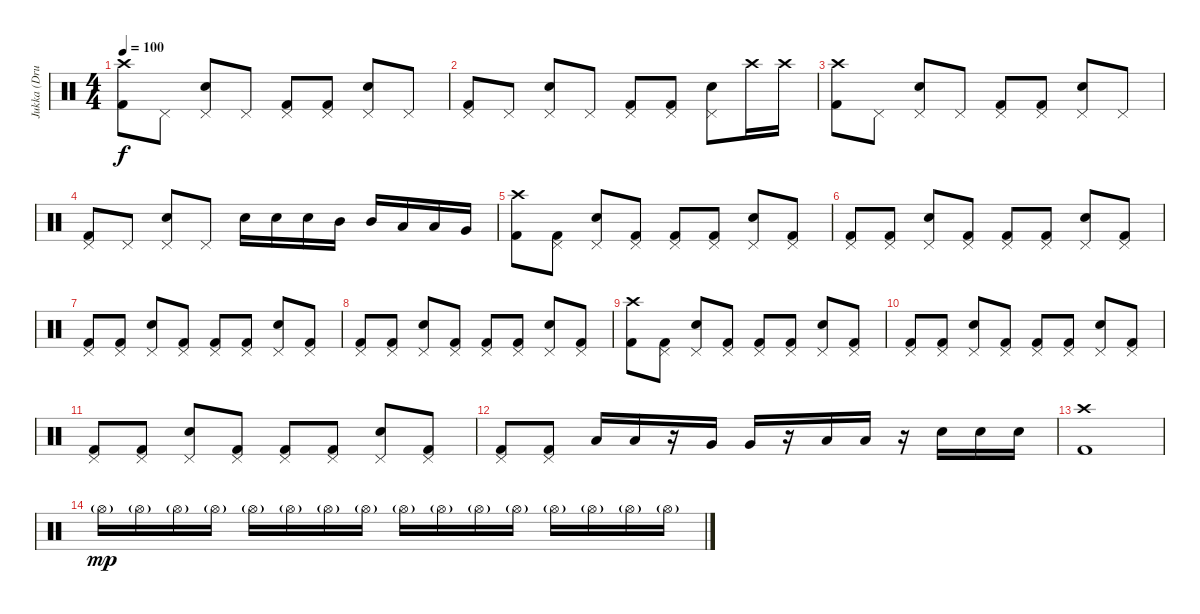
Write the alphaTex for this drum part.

\track ("Jukka (Drums)" "Jukka (Dru") {instrument percussion}
\staff {score}
\articulation defaults
\ts (4 4)
\tempo 100
\clef neutral
\ks c
("Crash high (hit)" "Kick (hit) 2").8{dy f} "Pedal Hi-Hat (hit)".8 ("Pedal Hi-Hat (hit)" "Snare (hit) 2").8 "Pedal Hi-Hat (hit)".8 ("Pedal Hi-Hat (hit)" "Kick (hit) 2").8 ("Pedal Hi-Hat (hit)" "Kick (hit) 2").8 ("Pedal Hi-Hat (hit)" "Snare (hit) 2").8 "Pedal Hi-Hat (hit)".8 |
("Pedal Hi-Hat (hit)" "Kick (hit) 2").8 "Pedal Hi-Hat (hit)".8 ("Pedal Hi-Hat (hit)" "Snare (hit) 2").8 "Pedal Hi-Hat (hit)".8 ("Pedal Hi-Hat (hit)" "Kick (hit) 2").8 ("Pedal Hi-Hat (hit)" "Kick (hit) 2").8 ("Pedal Hi-Hat (hit)" "Snare (hit) 2").8 "Crash high (hit)".16 "Crash high (hit)".16 |
("Crash high (hit)" "Kick (hit) 2").8 "Pedal Hi-Hat (hit)".8 ("Pedal Hi-Hat (hit)" "Snare (hit) 2").8 "Pedal Hi-Hat (hit)".8 ("Pedal Hi-Hat (hit)" "Kick (hit) 2").8 ("Pedal Hi-Hat (hit)" "Kick (hit) 2").8 ("Pedal Hi-Hat (hit)" "Snare (hit) 2").8 "Pedal Hi-Hat (hit)".8 |
("Pedal Hi-Hat (hit)" "Kick (hit) 2").8 "Pedal Hi-Hat (hit)".8 ("Pedal Hi-Hat (hit)" "Snare (hit) 2").8 "Pedal Hi-Hat (hit)".8 "Snare (hit) 2".16 "Snare (hit) 2".16 "Snare (hit) 2".16 "Mid Tom (hit)".16 "Mid Tom (hit)".16 "Low Tom (hit)".16 "Low Tom (hit)".16 "Very Low Tom (hit)".16 |
("Crash high (hit)" "Kick (hit) 2").8 ("Pedal Hi-Hat (hit)" "Kick (hit) 2").8 ("Pedal Hi-Hat (hit)" "Snare (hit) 2").8 ("Pedal Hi-Hat (hit)" "Kick (hit) 2").8 ("Pedal Hi-Hat (hit)" "Kick (hit) 2").8 ("Pedal Hi-Hat (hit)" "Kick (hit) 2").8 ("Pedal Hi-Hat (hit)" "Snare (hit) 2").8 ("Pedal Hi-Hat (hit)" "Kick (hit) 2").8 |
("Pedal Hi-Hat (hit)" "Kick (hit) 2").8 ("Pedal Hi-Hat (hit)" "Kick (hit) 2").8 ("Pedal Hi-Hat (hit)" "Snare (hit) 2").8 ("Pedal Hi-Hat (hit)" "Kick (hit) 2").8 ("Pedal Hi-Hat (hit)" "Kick (hit) 2").8 ("Pedal Hi-Hat (hit)" "Kick (hit) 2").8 ("Pedal Hi-Hat (hit)" "Snare (hit) 2").8 ("Pedal Hi-Hat (hit)" "Kick (hit) 2").8 |
("Pedal Hi-Hat (hit)" "Kick (hit) 2").8 ("Pedal Hi-Hat (hit)" "Kick (hit) 2").8 ("Pedal Hi-Hat (hit)" "Snare (hit) 2").8 ("Pedal Hi-Hat (hit)" "Kick (hit) 2").8 ("Pedal Hi-Hat (hit)" "Kick (hit) 2").8 ("Pedal Hi-Hat (hit)" "Kick (hit) 2").8 ("Pedal Hi-Hat (hit)" "Snare (hit) 2").8 ("Pedal Hi-Hat (hit)" "Kick (hit) 2").8 |
("Pedal Hi-Hat (hit)" "Kick (hit) 2").8 ("Pedal Hi-Hat (hit)" "Kick (hit) 2").8 ("Pedal Hi-Hat (hit)" "Snare (hit) 2").8 ("Pedal Hi-Hat (hit)" "Kick (hit) 2").8 ("Pedal Hi-Hat (hit)" "Kick (hit) 2").8 ("Pedal Hi-Hat (hit)" "Kick (hit) 2").8 ("Pedal Hi-Hat (hit)" "Snare (hit) 2").8 ("Pedal Hi-Hat (hit)" "Kick (hit) 2").8 |
("Crash high (hit)" "Kick (hit) 2").8 ("Pedal Hi-Hat (hit)" "Kick (hit) 2").8 ("Pedal Hi-Hat (hit)" "Snare (hit) 2").8 ("Pedal Hi-Hat (hit)" "Kick (hit) 2").8 ("Pedal Hi-Hat (hit)" "Kick (hit) 2").8 ("Pedal Hi-Hat (hit)" "Kick (hit) 2").8 ("Pedal Hi-Hat (hit)" "Snare (hit) 2").8 ("Pedal Hi-Hat (hit)" "Kick (hit) 2").8 |
("Pedal Hi-Hat (hit)" "Kick (hit) 2").8 ("Pedal Hi-Hat (hit)" "Kick (hit) 2").8 ("Pedal Hi-Hat (hit)" "Snare (hit) 2").8 ("Pedal Hi-Hat (hit)" "Kick (hit) 2").8 ("Pedal Hi-Hat (hit)" "Kick (hit) 2").8 ("Pedal Hi-Hat (hit)" "Kick (hit) 2").8 ("Pedal Hi-Hat (hit)" "Snare (hit) 2").8 ("Pedal Hi-Hat (hit)" "Kick (hit) 2").8 |
("Pedal Hi-Hat (hit)" "Kick (hit) 2").8 ("Pedal Hi-Hat (hit)" "Kick (hit) 2").8 ("Pedal Hi-Hat (hit)" "Snare (hit) 2").8 ("Pedal Hi-Hat (hit)" "Kick (hit) 2").8 ("Pedal Hi-Hat (hit)" "Kick (hit) 2").8 ("Pedal Hi-Hat (hit)" "Kick (hit) 2").8 ("Pedal Hi-Hat (hit)" "Snare (hit) 2").8 ("Pedal Hi-Hat (hit)" "Kick (hit) 2").8 |
("Pedal Hi-Hat (hit)" "Kick (hit) 2").8 ("Pedal Hi-Hat (hit)" "Kick (hit) 2").8 "Low Tom (hit)".16 "Low Tom (hit)".16 r.16 "Very Low Tom (hit)".16 "Very Low Tom (hit)".16 r.16 "Low Floor Tom (hit)".16 "Low Floor Tom (hit)".16 r.16 "Snare (hit) 2".16 "Snare (hit) 2".16 "Snare (hit) 2".16 |
("Crash high (hit)" "Kick (hit) 2").1 |
"Hi-Hat (open)"{g}.16{dy mp volume 2} "Hi-Hat (open)"{g}.16 "Hi-Hat (open)"{g}.16{volume 4} "Hi-Hat (open)"{g}.16 "Hi-Hat (open)"{g}.16{volume 6} "Hi-Hat (open)"{g}.16 "Hi-Hat (open)"{g}.16{volume 8} "Hi-Hat (open)"{g}.16 "Hi-Hat (open)"{g}.16{volume 10} "Hi-Hat (open)"{g}.16 "Hi-Hat (open)"{g}.16{volume 12} "Hi-Hat (open)"{g}.16 "Hi-Hat (open)"{g}.16{volume 14} "Hi-Hat (open)"{g}.16 "Hi-Hat (open)"{g}.16{volume 16} "Hi-Hat (open)"{g}.16
